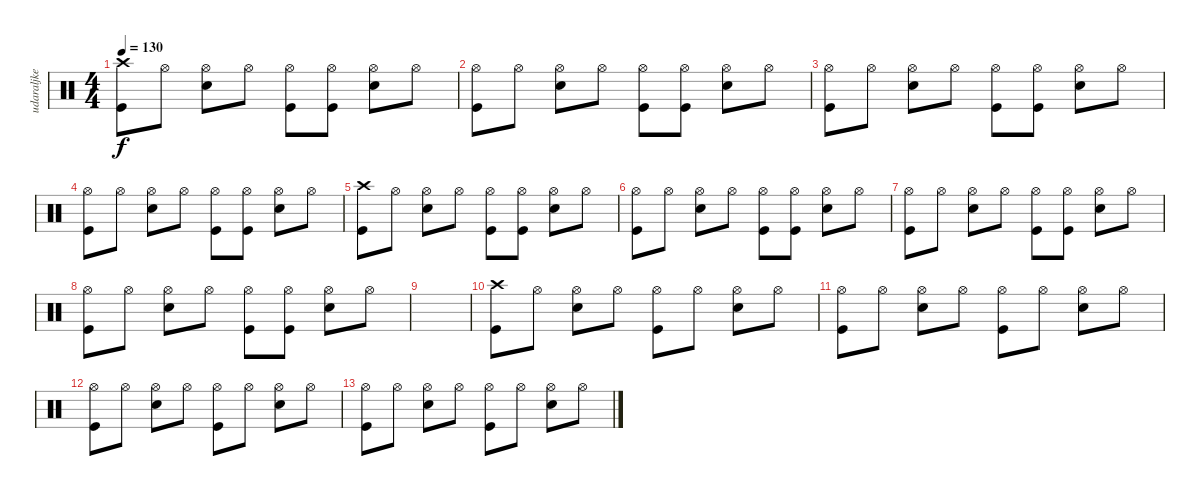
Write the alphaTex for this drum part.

\track ("udaraljke" "udaraljke") {instrument percussion}
\staff {score}
\articulation defaults
\ts (4 4)
\tempo 130
\clef neutral
\ks c
("Crash high (hit)" "Kick (hit)").8{dy f} "Hi-Hat (open)".8 ("Hi-Hat (open)" "Electric Snare (hit)").8 "Hi-Hat (open)".8 ("Hi-Hat (open)" "Kick (hit)").8 ("Hi-Hat (open)" "Kick (hit)").8 ("Hi-Hat (open)" "Electric Snare (hit)").8 "Hi-Hat (open)".8 |
("Hi-Hat (open)" "Kick (hit)").8 "Hi-Hat (open)".8 ("Hi-Hat (open)" "Electric Snare (hit)").8 "Hi-Hat (open)".8 ("Hi-Hat (open)" "Kick (hit)").8 ("Hi-Hat (open)" "Kick (hit)").8 ("Hi-Hat (open)" "Electric Snare (hit)").8 "Hi-Hat (open)".8 |
("Hi-Hat (open)" "Kick (hit)").8 "Hi-Hat (open)".8 ("Hi-Hat (open)" "Electric Snare (hit)").8 "Hi-Hat (open)".8 ("Hi-Hat (open)" "Kick (hit)").8 ("Hi-Hat (open)" "Kick (hit)").8 ("Hi-Hat (open)" "Electric Snare (hit)").8 "Hi-Hat (open)".8 |
("Hi-Hat (open)" "Kick (hit)").8 "Hi-Hat (open)".8 ("Hi-Hat (open)" "Electric Snare (hit)").8 "Hi-Hat (open)".8 ("Hi-Hat (open)" "Kick (hit)").8 ("Hi-Hat (open)" "Kick (hit)").8 ("Hi-Hat (open)" "Electric Snare (hit)").8 "Hi-Hat (open)".8 |
("Crash high (hit)" "Kick (hit)").8 "Hi-Hat (open)".8 ("Hi-Hat (open)" "Electric Snare (hit)").8 "Hi-Hat (open)".8 ("Hi-Hat (open)" "Kick (hit)").8 ("Hi-Hat (open)" "Kick (hit)").8 ("Hi-Hat (open)" "Electric Snare (hit)").8 "Hi-Hat (open)".8 |
("Hi-Hat (open)" "Kick (hit)").8 "Hi-Hat (open)".8 ("Hi-Hat (open)" "Electric Snare (hit)").8 "Hi-Hat (open)".8 ("Hi-Hat (open)" "Kick (hit)").8 ("Hi-Hat (open)" "Kick (hit)").8 ("Hi-Hat (open)" "Electric Snare (hit)").8 "Hi-Hat (open)".8 |
("Hi-Hat (open)" "Kick (hit)").8 "Hi-Hat (open)".8 ("Hi-Hat (open)" "Electric Snare (hit)").8 "Hi-Hat (open)".8 ("Hi-Hat (open)" "Kick (hit)").8 ("Hi-Hat (open)" "Kick (hit)").8 ("Hi-Hat (open)" "Electric Snare (hit)").8 "Hi-Hat (open)".8 |
("Hi-Hat (open)" "Kick (hit)").8 "Hi-Hat (open)".8 ("Hi-Hat (open)" "Electric Snare (hit)").8 "Hi-Hat (open)".8 ("Hi-Hat (open)" "Kick (hit)").8 ("Hi-Hat (open)" "Kick (hit)").8 ("Hi-Hat (open)" "Electric Snare (hit)").8 "Hi-Hat (open)".8 |
|
("Crash high (hit)" "Kick (hit)").8 "Hi-Hat (open)".8 ("Hi-Hat (open)" "Electric Snare (hit)").8 "Hi-Hat (open)".8 ("Hi-Hat (open)" "Kick (hit)").8 "Hi-Hat (open)".8 ("Hi-Hat (open)" "Electric Snare (hit)").8 "Hi-Hat (open)".8 |
("Hi-Hat (open)" "Kick (hit)").8 "Hi-Hat (open)".8 ("Hi-Hat (open)" "Electric Snare (hit)").8 "Hi-Hat (open)".8 ("Hi-Hat (open)" "Kick (hit)").8 "Hi-Hat (open)".8 ("Hi-Hat (open)" "Electric Snare (hit)").8 "Hi-Hat (open)".8 |
("Hi-Hat (open)" "Kick (hit)").8 "Hi-Hat (open)".8 ("Hi-Hat (open)" "Electric Snare (hit)").8 "Hi-Hat (open)".8 ("Hi-Hat (open)" "Kick (hit)").8 "Hi-Hat (open)".8 ("Hi-Hat (open)" "Electric Snare (hit)").8 "Hi-Hat (open)".8 |
("Hi-Hat (open)" "Kick (hit)").8 "Hi-Hat (open)".8 ("Hi-Hat (open)" "Electric Snare (hit)").8 "Hi-Hat (open)".8 ("Hi-Hat (open)" "Kick (hit)").8 "Hi-Hat (open)".8 ("Hi-Hat (open)" "Electric Snare (hit)").8 "Hi-Hat (open)".8
